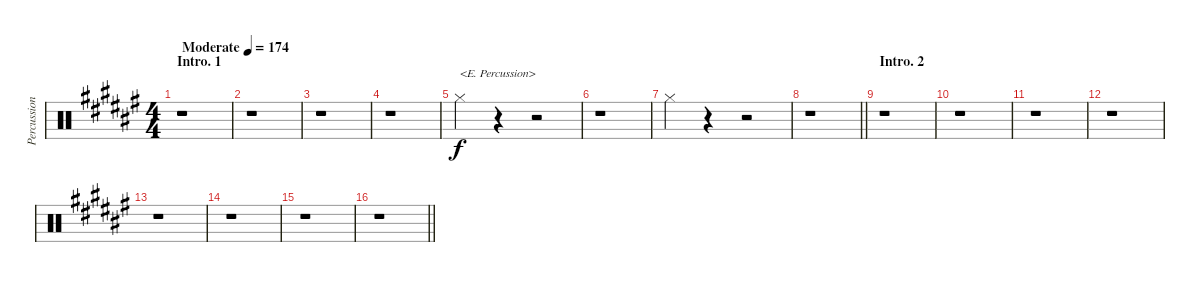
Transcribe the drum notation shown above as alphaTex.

\track ("Percussion II" "Percussion") {instrument percussion}
\staff {score}
\articulation defaults
\ts (4 4)
\section ("" "Intro. 1")
\tempo (174 "Moderate")
\clef neutral
\ks f#
r.1{dy f} |
r.1 |
r.1 |
r.1 |
"Hi-Hat (closed)".4{txt "<E. Percussion>"} r.4 r.2 |
r.1 |
"Hi-Hat (closed)".4 r.4 r.2 |
\barLineRight lightlight
r.1 |
\section ("" "Intro. 2")
r.1 |
r.1 |
r.1 |
r.1 |
r.1 |
r.1 |
r.1 |
\barLineRight lightlight
r.1
